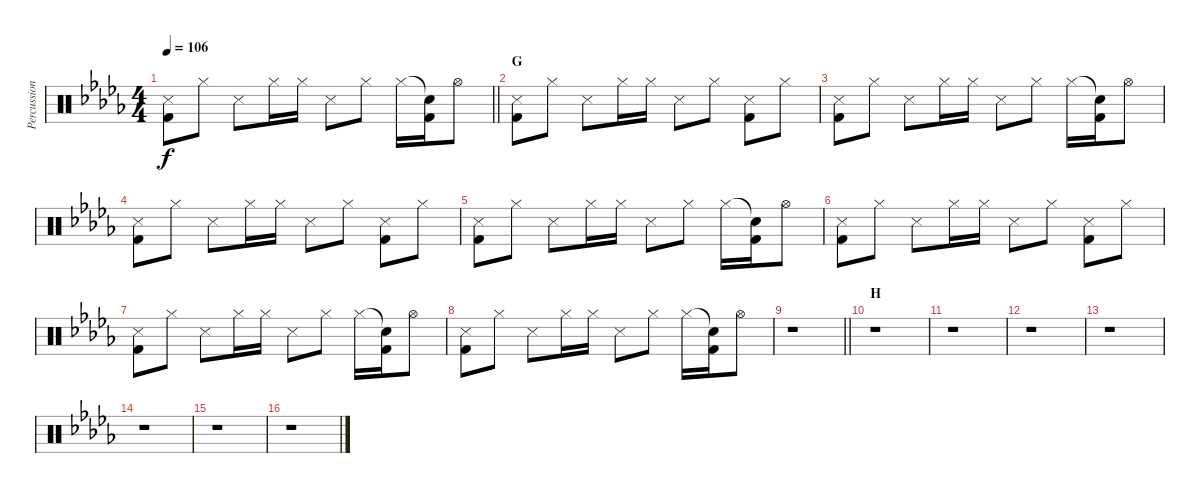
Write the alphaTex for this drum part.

\track ("Percussion" "Percussion") {instrument percussion}
\staff {score}
\articulation defaults
\ts (4 4)
\tempo 106
\clef neutral
\barLineRight lightlight
\ks db
("Snare (side stick) 3" "Kick (hit) 2").8{dy f} "Hi-Hat (closed)".8 "Snare (side stick) 3".8 "Hi-Hat (closed)".16 "Hi-Hat (closed)".16 "Snare (side stick) 3".8 "Hi-Hat (closed)".8 "Hi-Hat (closed)".16 ("Snare (hit)"{t} "Kick (hit) 2").16 "Hi-Hat (open)".8 |
\section ("" "G")
("Snare (side stick) 3" "Kick (hit) 2").8 "Hi-Hat (closed)".8 "Snare (side stick) 3".8 "Hi-Hat (closed)".16 "Hi-Hat (closed)".16 "Snare (side stick) 3".8 "Hi-Hat (closed)".8 ("Snare (side stick) 3" "Kick (hit) 2").8 "Hi-Hat (closed)".8 |
("Snare (side stick) 3" "Kick (hit) 2").8 "Hi-Hat (closed)".8 "Snare (side stick) 3".8 "Hi-Hat (closed)".16 "Hi-Hat (closed)".16 "Snare (side stick) 3".8 "Hi-Hat (closed)".8 "Hi-Hat (closed)".16 ("Snare (hit)"{t} "Kick (hit) 2").16 "Hi-Hat (open)".8 |
("Snare (side stick) 3" "Kick (hit) 2").8 "Hi-Hat (closed)".8 "Snare (side stick) 3".8 "Hi-Hat (closed)".16 "Hi-Hat (closed)".16 "Snare (side stick) 3".8 "Hi-Hat (closed)".8 ("Snare (side stick) 3" "Kick (hit) 2").8 "Hi-Hat (closed)".8 |
("Snare (side stick) 3" "Kick (hit) 2").8 "Hi-Hat (closed)".8 "Snare (side stick) 3".8 "Hi-Hat (closed)".16 "Hi-Hat (closed)".16 "Snare (side stick) 3".8 "Hi-Hat (closed)".8 "Hi-Hat (closed)".16 ("Snare (hit)"{t} "Kick (hit) 2").16 "Hi-Hat (open)".8 |
("Snare (side stick) 3" "Kick (hit) 2").8 "Hi-Hat (closed)".8 "Snare (side stick) 3".8 "Hi-Hat (closed)".16 "Hi-Hat (closed)".16 "Snare (side stick) 3".8 "Hi-Hat (closed)".8 ("Snare (side stick) 3" "Kick (hit) 2").8 "Hi-Hat (closed)".8 |
("Snare (side stick) 3" "Kick (hit) 2").8 "Hi-Hat (closed)".8 "Snare (side stick) 3".8 "Hi-Hat (closed)".16 "Hi-Hat (closed)".16 "Snare (side stick) 3".8 "Hi-Hat (closed)".8 "Hi-Hat (closed)".16 ("Snare (hit)"{t} "Kick (hit) 2").16 "Hi-Hat (open)".8 |
("Snare (side stick) 3" "Kick (hit) 2").8 "Hi-Hat (closed)".8 "Snare (side stick) 3".8 "Hi-Hat (closed)".16 "Hi-Hat (closed)".16 "Snare (side stick) 3".8 "Hi-Hat (closed)".8 "Hi-Hat (closed)".16 ("Snare (hit)"{t} "Kick (hit) 2").16 "Hi-Hat (open)".8 |
\barLineRight lightlight
r.1 |
\section ("" "H")
r.1 |
r.1 |
r.1 |
r.1 |
r.1 |
r.1 |
r.1
